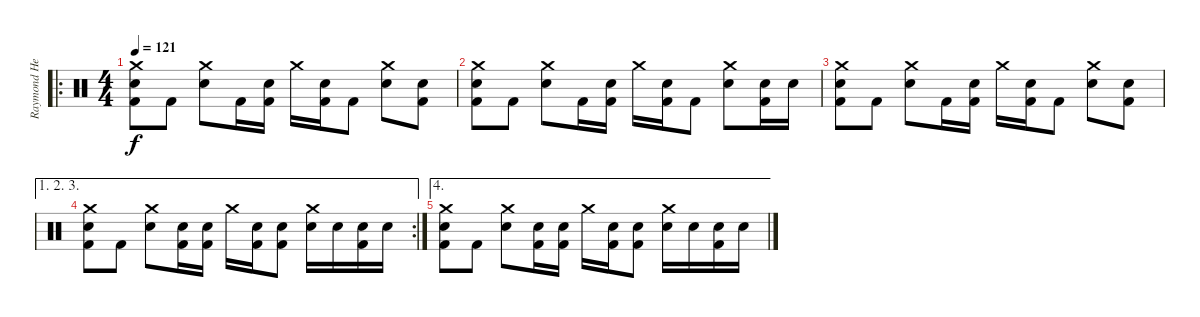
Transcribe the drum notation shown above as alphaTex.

\track ("Raymond Herrerra" "Raymond He") {instrument percussion}
\staff {score}
\articulation defaults
\ro
\ts (4 4)
\tempo 121
\clef neutral
\ks c
("Crash medium (hit)" "Electric Snare (hit)" "Kick (hit) 2").8{dy f} "Kick (hit) 2".8 ("Crash medium (hit)" "Electric Snare (hit)").8 "Kick (hit) 2".16 ("Electric Snare (hit)" "Kick (hit) 2").16 "Crash medium (hit)".16 ("Electric Snare (hit)" "Kick (hit) 2").16 "Kick (hit) 2".8 ("Crash medium (hit)" "Electric Snare (hit)").8 ("Electric Snare (hit)" "Kick (hit) 2").8 |
("Crash medium (hit)" "Electric Snare (hit)" "Kick (hit) 2").8 "Kick (hit) 2".8 ("Crash medium (hit)" "Electric Snare (hit)").8 "Kick (hit) 2".16 ("Electric Snare (hit)" "Kick (hit) 2").16 "Crash medium (hit)".16 ("Electric Snare (hit)" "Kick (hit) 2").16 "Kick (hit) 2".8 ("Crash medium (hit)" "Electric Snare (hit)").8 ("Electric Snare (hit)" "Kick (hit) 2").16 "Electric Snare (hit)".16 |
("Crash medium (hit)" "Electric Snare (hit)" "Kick (hit) 2").8 "Kick (hit) 2".8 ("Crash medium (hit)" "Electric Snare (hit)").8 "Kick (hit) 2".16 ("Electric Snare (hit)" "Kick (hit) 2").16 "Crash medium (hit)".16 ("Electric Snare (hit)" "Kick (hit) 2").16 "Kick (hit) 2".8 ("Crash medium (hit)" "Electric Snare (hit)").8 ("Electric Snare (hit)" "Kick (hit) 2").8 |
\ae (1 2 3)
\rc 2
("Crash medium (hit)" "Electric Snare (hit)" "Kick (hit) 2").8 "Kick (hit) 2".8 ("Crash medium (hit)" "Electric Snare (hit)").8 ("Electric Snare (hit)" "Kick (hit) 2").16 ("Electric Snare (hit)" "Kick (hit) 2").16 "Crash medium (hit)".16 ("Electric Snare (hit)" "Kick (hit) 2").16 ("Electric Snare (hit)" "Kick (hit) 2").8 ("Crash medium (hit)" "Electric Snare (hit)").16 "Electric Snare (hit)".16 ("Electric Snare (hit)" "Kick (hit) 2").16 "Electric Snare (hit)".16 |
\ae 4
("Crash medium (hit)" "Electric Snare (hit)" "Kick (hit) 2").8 "Kick (hit) 2".8 ("Crash medium (hit)" "Electric Snare (hit)").8 ("Electric Snare (hit)" "Kick (hit) 2").16 ("Electric Snare (hit)" "Kick (hit) 2").16 "Crash medium (hit)".16 ("Electric Snare (hit)" "Kick (hit) 2").16 ("Electric Snare (hit)" "Kick (hit) 2").8 ("Crash medium (hit)" "Electric Snare (hit)").16 "Electric Snare (hit)".16 ("Electric Snare (hit)" "Kick (hit) 2").16 "Electric Snare (hit)".16
